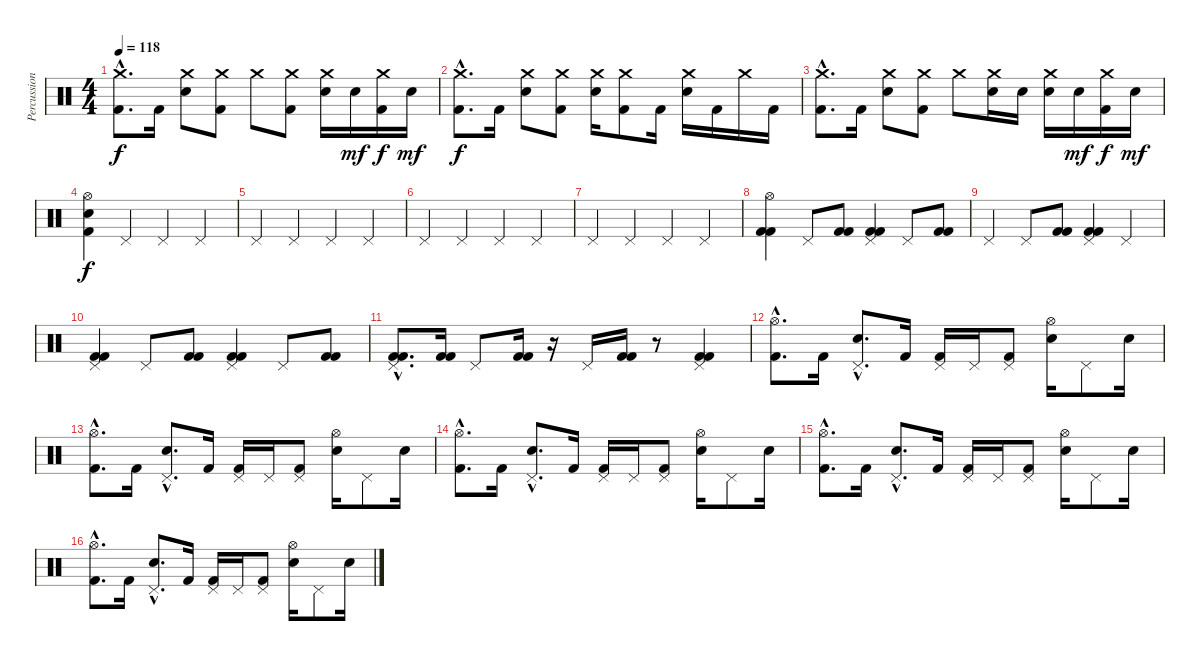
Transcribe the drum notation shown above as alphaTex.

\track ("Percussions" "Percussion") {instrument percussion}
\staff {score}
\articulation defaults
\ts (4 4)
\tempo 118
\clef neutral
\ks c
("Crash medium (hit)"{hac} "Kick (hit) 2"{hac}).8{d dy f} "Kick (hit) 2".16 ("Crash medium (hit)" "Electric Snare (hit)").8 ("Crash medium (hit)" "Kick (hit) 2").8 "Crash medium (hit)".8 ("Crash medium (hit)" "Kick (hit) 2").8 ("Crash medium (hit)" "Electric Snare (hit)").16 "Electric Snare (hit)".16{dy mf} ("Crash medium (hit)" "Kick (hit) 2").16{dy f} "Electric Snare (hit)".16{dy mf} |
("Crash medium (hit)"{hac} "Kick (hit) 2"{hac}).8{d dy f} "Kick (hit) 2".16 ("Crash medium (hit)" "Electric Snare (hit)").8 ("Crash medium (hit)" "Kick (hit) 2").8 ("Crash medium (hit)" "Electric Snare (hit)").16 ("Crash medium (hit)" "Kick (hit) 2").8 "Kick (hit) 2".16 ("Crash medium (hit)" "Electric Snare (hit)").16 "Kick (hit) 2".16 "Crash medium (hit)".16 "Kick (hit) 2".16 |
("Crash medium (hit)"{hac} "Kick (hit) 2"{hac}).8{d} "Kick (hit) 2".16 ("Crash medium (hit)" "Electric Snare (hit)").8 ("Crash medium (hit)" "Kick (hit) 2").8 "Crash medium (hit)".8 ("Crash medium (hit)" "Electric Snare (hit)").16 "Electric Snare (hit)".16 ("Crash medium (hit)" "Electric Snare (hit)").16 "Electric Snare (hit)".16{dy mf} ("Crash medium (hit)" "Kick (hit) 2").16{dy f} "Electric Snare (hit)".16{dy mf} |
("Hi-Hat (open)" "Kick (hit) 2" "Electric Snare (hit)").4{dy f} "Pedal Hi-Hat (hit)".4 "Pedal Hi-Hat (hit)".4 "Pedal Hi-Hat (hit)".4 |
"Pedal Hi-Hat (hit)".4 "Pedal Hi-Hat (hit)".4 "Pedal Hi-Hat (hit)".4 "Pedal Hi-Hat (hit)".4 |
"Pedal Hi-Hat (hit)".4 "Pedal Hi-Hat (hit)".4 "Pedal Hi-Hat (hit)".4 "Pedal Hi-Hat (hit)".4 |
"Pedal Hi-Hat (hit)".4 "Pedal Hi-Hat (hit)".4 "Pedal Hi-Hat (hit)".4 "Pedal Hi-Hat (hit)".4 |
("Hi-Hat (open)" "Kick (hit) 2" "Kick (hit) 2").4 "Pedal Hi-Hat (hit)".8 ("Kick (hit) 2" "Kick (hit) 2").8 ("Pedal Hi-Hat (hit)" "Kick (hit) 2" "Kick (hit) 2").4 "Pedal Hi-Hat (hit)".8 ("Kick (hit) 2" "Kick (hit) 2").8 |
"Pedal Hi-Hat (hit)".4 "Pedal Hi-Hat (hit)".8 ("Kick (hit) 2" "Kick (hit) 2").8 ("Pedal Hi-Hat (hit)" "Kick (hit) 2" "Kick (hit) 2").4 "Pedal Hi-Hat (hit)".4 |
("Pedal Hi-Hat (hit)" "Kick (hit) 2" "Kick (hit) 2").4 "Pedal Hi-Hat (hit)".8 ("Kick (hit) 2" "Kick (hit) 2").8 ("Pedal Hi-Hat (hit)" "Kick (hit) 2" "Kick (hit) 2").4 "Pedal Hi-Hat (hit)".8 ("Kick (hit) 2" "Kick (hit) 2").8 |
("Pedal Hi-Hat (hit)"{hac} "Kick (hit) 2"{hac} "Kick (hit) 2"{hac}).8{d} ("Kick (hit) 2" "Kick (hit) 2").16 "Pedal Hi-Hat (hit)".8 ("Kick (hit) 2" "Kick (hit) 2").16 r.16 "Pedal Hi-Hat (hit)".16 ("Kick (hit) 2" "Kick (hit) 2").16 r.8 ("Pedal Hi-Hat (hit)" "Kick (hit) 2" "Kick (hit) 2").4 |
("Hi-Hat (open)"{hac} "Kick (hit) 2"{hac}).8{d} "Kick (hit) 2".16 ("Pedal Hi-Hat (hit)"{hac} "Electric Snare (hit)"{hac}).8{d} "Kick (hit) 2".16 ("Pedal Hi-Hat (hit)" "Kick (hit) 2").16 "Pedal Hi-Hat (hit)".16 ("Pedal Hi-Hat (hit)" "Kick (hit) 2").8 ("Hi-Hat (open)" "Electric Snare (hit)").16 "Pedal Hi-Hat (hit)".8 "Electric Snare (hit)".16 |
("Hi-Hat (open)"{hac} "Kick (hit) 2"{hac}).8{d} "Kick (hit) 2".16 ("Pedal Hi-Hat (hit)"{hac} "Electric Snare (hit)"{hac}).8{d} "Kick (hit) 2".16 ("Pedal Hi-Hat (hit)" "Kick (hit) 2").16 "Pedal Hi-Hat (hit)".16 ("Pedal Hi-Hat (hit)" "Kick (hit) 2").8 ("Hi-Hat (open)" "Electric Snare (hit)").16 "Pedal Hi-Hat (hit)".8 "Electric Snare (hit)".16 |
("Hi-Hat (open)"{hac} "Kick (hit) 2"{hac}).8{d} "Kick (hit) 2".16 ("Pedal Hi-Hat (hit)"{hac} "Electric Snare (hit)"{hac}).8{d} "Kick (hit) 2".16 ("Pedal Hi-Hat (hit)" "Kick (hit) 2").16 "Pedal Hi-Hat (hit)".16 ("Pedal Hi-Hat (hit)" "Kick (hit) 2").8 ("Hi-Hat (open)" "Electric Snare (hit)").16 "Pedal Hi-Hat (hit)".8 "Electric Snare (hit)".16 |
("Hi-Hat (open)"{hac} "Kick (hit) 2"{hac}).8{d} "Kick (hit) 2".16 ("Pedal Hi-Hat (hit)"{hac} "Electric Snare (hit)"{hac}).8{d} "Kick (hit) 2".16 ("Pedal Hi-Hat (hit)" "Kick (hit) 2").16 "Pedal Hi-Hat (hit)".16 ("Pedal Hi-Hat (hit)" "Kick (hit) 2").8 ("Hi-Hat (open)" "Electric Snare (hit)").16 "Pedal Hi-Hat (hit)".8 "Electric Snare (hit)".16 |
("Hi-Hat (open)"{hac} "Kick (hit) 2"{hac}).8{d} "Kick (hit) 2".16 ("Pedal Hi-Hat (hit)"{hac} "Electric Snare (hit)"{hac}).8{d} "Kick (hit) 2".16 ("Pedal Hi-Hat (hit)" "Kick (hit) 2").16 "Pedal Hi-Hat (hit)".16 ("Pedal Hi-Hat (hit)" "Kick (hit) 2").8 ("Hi-Hat (open)" "Electric Snare (hit)").16 "Pedal Hi-Hat (hit)".8 "Electric Snare (hit)".16
